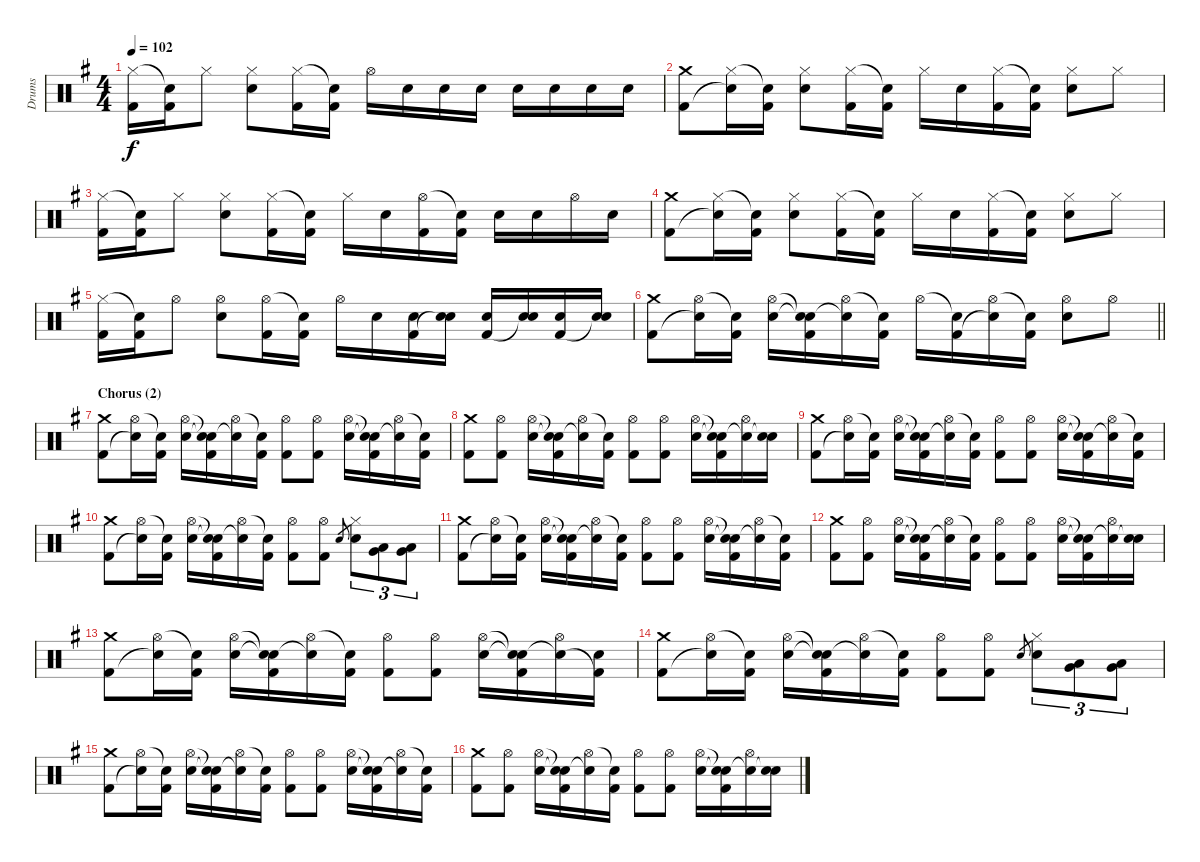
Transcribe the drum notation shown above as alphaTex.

\track ("Drums" "Drums") {instrument percussion}
\staff {score}
\articulation defaults
\ts (4 4)
\tempo 102
\clef neutral
\ks eminor
("Hi-Hat (closed)" "Kick (hit) 2").16{dy f} ("Snare (hit)"{t} "Kick (hit) 2").16 "Hi-Hat (closed)".8 ("Hi-Hat (closed)" "Electric Snare (hit)").8 ("Hi-Hat (closed)" "Kick (hit) 2").16 ("Snare (hit)"{t} "Kick (hit) 2").16 "Hi-Hat (open)".16 "Electric Snare (hit)".16 "Electric Snare (hit)".16 "Electric Snare (hit)".16 "Electric Snare (hit)".16 "Electric Snare (hit)".16 "Electric Snare (hit)".16 "Electric Snare (hit)".16 |
("Crash medium (hit)" "Kick (hit) 2").8 ("Hi-Hat (closed)" "Snare (hit)"{t}).16 ("Snare (hit)"{t} "Kick (hit) 2").16 ("Hi-Hat (closed)" "Electric Snare (hit)").8 ("Hi-Hat (closed)" "Kick (hit) 2").16 ("Snare (hit)"{t} "Kick (hit) 2").16 "Hi-Hat (closed)".16 "Electric Snare (hit)".16 ("Hi-Hat (closed)" "Kick (hit) 2").16 ("Snare (hit)"{t} "Kick (hit) 2").16 ("Hi-Hat (closed)" "Electric Snare (hit)").8 "Hi-Hat (closed)".8 |
("Hi-Hat (closed)" "Kick (hit) 2").16 ("Snare (hit)"{t} "Kick (hit) 2").16 "Hi-Hat (closed)".8 ("Hi-Hat (closed)" "Electric Snare (hit)").8 ("Hi-Hat (closed)" "Kick (hit) 2").16 ("Snare (hit)"{t} "Kick (hit) 2").16 "Hi-Hat (closed)".16 "Electric Snare (hit)".16 ("Hi-Hat (open)" "Kick (hit) 2").16 ("Snare (hit)"{t} "Kick (hit) 2").16 "Electric Snare (hit)".16 "Electric Snare (hit)".16 "Hi-Hat (open)".16 "Electric Snare (hit)".16 |
("Crash medium (hit)" "Kick (hit) 2").8 ("Hi-Hat (closed)" "Snare (hit)"{t}).16 ("Snare (hit)"{t} "Kick (hit) 2").16 ("Hi-Hat (closed)" "Electric Snare (hit)").8 ("Hi-Hat (closed)" "Kick (hit) 2").16 ("Snare (hit)"{t} "Kick (hit) 2").16 "Hi-Hat (closed)".16 "Electric Snare (hit)".16 ("Hi-Hat (closed)" "Kick (hit) 2").16 ("Snare (hit)"{t} "Kick (hit) 2").16 ("Hi-Hat (closed)" "Electric Snare (hit)").8 "Hi-Hat (closed)".8 |
("Hi-Hat (closed)" "Kick (hit) 2").16 ("Snare (hit)"{t} "Kick (hit) 2").16 "Hi-Hat (open)".8 ("Hi-Hat (open)" "Electric Snare (hit)").8 ("Hi-Hat (open)" "Kick (hit) 2").16 ("Snare (hit)"{t} "Kick (hit) 2").16 "Hi-Hat (open)".16 "Electric Snare (hit)".16 ("Electric Snare (hit)" "Kick (hit) 2").16 ("Electric Snare (hit)" "Snare (hit)"{t}).16 ("Electric Snare (hit)" "Kick (hit) 2").16 ("Electric Snare (hit)" "Snare (hit)"{t}).16 ("Electric Snare (hit)" "Kick (hit) 2").16 ("Electric Snare (hit)" "Snare (hit)"{t}).16 |
\barLineRight lightlight
("Crash medium (hit)" "Kick (hit) 2").8 ("Hi-Hat (open)" "Snare (hit)"{t}).16 ("Snare (hit)"{t} "Kick (hit) 2").16 ("Hi-Hat (open)" "Electric Snare (hit)").16 ("Snare (hit)"{t} "Snare (hit)"{t} "Kick (hit) 2").16 ("Hi-Hat (open)" "Snare (hit)"{t}).16 ("Snare (hit)"{t} "Kick (hit) 2").16 "Hi-Hat (open)".16 ("Snare (hit)"{t} "Kick (hit) 2").16 ("Hi-Hat (open)" "Snare (hit)"{t}).16 ("Snare (hit)"{t} "Kick (hit) 2").16 ("Hi-Hat (open)" "Electric Snare (hit)").8 "Hi-Hat (open)".8 |
\section ("" "Chorus (2)")
("Crash medium (hit)" "Kick (hit) 2").8 ("Hi-Hat (open)" "Snare (hit)"{t}).16 ("Snare (hit)"{t} "Kick (hit) 2").16 ("Hi-Hat (open)" "Electric Snare (hit)").16 ("Snare (hit)"{t} "Snare (hit)"{t} "Kick (hit) 2").16 ("Hi-Hat (open)" "Snare (hit)"{t}).16 ("Snare (hit)"{t} "Kick (hit) 2").16 ("Hi-Hat (open)" "Kick (hit) 2").8 ("Hi-Hat (open)" "Kick (hit) 2").8 ("Hi-Hat (open)" "Electric Snare (hit)").16 ("Snare (hit)"{t} "Snare (hit)"{t} "Kick (hit) 2").16 ("Hi-Hat (open)" "Snare (hit)"{t}).16 ("Snare (hit)"{t} "Kick (hit) 2").16 |
("Crash medium (hit)" "Kick (hit) 2").8 ("Hi-Hat (open)" "Kick (hit) 2").8 ("Hi-Hat (open)" "Electric Snare (hit)").16 ("Snare (hit)"{t} "Snare (hit)"{t} "Kick (hit) 2").16 ("Hi-Hat (open)" "Snare (hit)"{t}).16 ("Snare (hit)"{t} "Kick (hit) 2").16 ("Hi-Hat (open)" "Kick (hit) 2").8 ("Hi-Hat (open)" "Kick (hit) 2").8 ("Hi-Hat (open)" "Electric Snare (hit)").16 ("Snare (hit)"{t} "Snare (hit)"{t} "Kick (hit) 2").16 ("Hi-Hat (open)" "Snare (hit)"{t}).16 ("Electric Snare (hit)" "Snare (hit)"{t}).16 |
("Crash medium (hit)" "Kick (hit) 2").8 ("Hi-Hat (open)" "Snare (hit)"{t}).16 ("Snare (hit)"{t} "Kick (hit) 2").16 ("Hi-Hat (open)" "Electric Snare (hit)").16 ("Snare (hit)"{t} "Snare (hit)"{t} "Kick (hit) 2").16 ("Hi-Hat (open)" "Snare (hit)"{t}).16 ("Snare (hit)"{t} "Kick (hit) 2").16 ("Hi-Hat (open)" "Kick (hit) 2").8 ("Hi-Hat (open)" "Kick (hit) 2").8 ("Hi-Hat (open)" "Electric Snare (hit)").16 ("Snare (hit)"{t} "Snare (hit)"{t} "Kick (hit) 2").16 ("Hi-Hat (open)" "Snare (hit)"{t}).16 ("Snare (hit)"{t} "Kick (hit) 2").16 |
("Crash medium (hit)" "Kick (hit) 2").8 ("Hi-Hat (open)" "Snare (hit)"{t}).16 ("Snare (hit)"{t} "Kick (hit) 2").16 ("Hi-Hat (open)" "Electric Snare (hit)").16 ("Snare (hit)"{t} "Snare (hit)"{t} "Kick (hit) 2").16 ("Hi-Hat (open)" "Snare (hit)"{t}).16 ("Snare (hit)"{t} "Kick (hit) 2").16 ("Hi-Hat (open)" "Kick (hit) 2").8 ("Hi-Hat (open)" "Kick (hit) 2").8 "Electric Snare (hit)".8{gr} ("Hi-Hat (closed)" "Electric Snare (hit)").8{tu (3 2)} ("Low Tom (hit)" "Very Low Tom (hit)").8{tu (3 2)} ("Low Tom (hit)" "Very Low Tom (hit)").8{tu (3 2)} |
("Crash medium (hit)" "Kick (hit) 2").8 ("Hi-Hat (open)" "Snare (hit)"{t}).16 ("Snare (hit)"{t} "Kick (hit) 2").16 ("Hi-Hat (open)" "Electric Snare (hit)").16 ("Snare (hit)"{t} "Snare (hit)"{t} "Kick (hit) 2").16 ("Hi-Hat (open)" "Snare (hit)"{t}).16 ("Snare (hit)"{t} "Kick (hit) 2").16 ("Hi-Hat (open)" "Kick (hit) 2").8 ("Hi-Hat (open)" "Kick (hit) 2").8 ("Hi-Hat (open)" "Electric Snare (hit)").16 ("Snare (hit)"{t} "Snare (hit)"{t} "Kick (hit) 2").16 ("Hi-Hat (open)" "Snare (hit)"{t}).16 ("Snare (hit)"{t} "Kick (hit) 2").16 |
("Crash medium (hit)" "Kick (hit) 2").8 ("Hi-Hat (open)" "Kick (hit) 2").8 ("Hi-Hat (open)" "Electric Snare (hit)").16 ("Snare (hit)"{t} "Snare (hit)"{t} "Kick (hit) 2").16 ("Hi-Hat (open)" "Snare (hit)"{t}).16 ("Snare (hit)"{t} "Kick (hit) 2").16 ("Hi-Hat (open)" "Kick (hit) 2").8 ("Hi-Hat (open)" "Kick (hit) 2").8 ("Hi-Hat (open)" "Electric Snare (hit)").16 ("Snare (hit)"{t} "Snare (hit)"{t} "Kick (hit) 2").16 ("Hi-Hat (open)" "Snare (hit)"{t}).16 ("Electric Snare (hit)" "Snare (hit)"{t}).16 |
("Crash medium (hit)" "Kick (hit) 2").8 ("Hi-Hat (open)" "Snare (hit)"{t}).16 ("Snare (hit)"{t} "Kick (hit) 2").16 ("Hi-Hat (open)" "Electric Snare (hit)").16 ("Snare (hit)"{t} "Snare (hit)"{t} "Kick (hit) 2").16 ("Hi-Hat (open)" "Snare (hit)"{t}).16 ("Snare (hit)"{t} "Kick (hit) 2").16 ("Hi-Hat (open)" "Kick (hit) 2").8 ("Hi-Hat (open)" "Kick (hit) 2").8 ("Hi-Hat (open)" "Electric Snare (hit)").16 ("Snare (hit)"{t} "Snare (hit)"{t} "Kick (hit) 2").16 ("Hi-Hat (open)" "Snare (hit)"{t}).16 ("Electric Snare (hit)" "Kick (hit) 2"{t}).16 |
("Crash medium (hit)" "Kick (hit) 2").8 ("Hi-Hat (open)" "Snare (hit)"{t}).16 ("Snare (hit)"{t} "Kick (hit) 2").16 ("Hi-Hat (open)" "Electric Snare (hit)").16 ("Snare (hit)"{t} "Snare (hit)"{t} "Kick (hit) 2").16 ("Hi-Hat (open)" "Snare (hit)"{t}).16 ("Snare (hit)"{t} "Kick (hit) 2").16 ("Hi-Hat (open)" "Kick (hit) 2").8 ("Hi-Hat (open)" "Kick (hit) 2").8 "Electric Snare (hit)".8{gr} ("Hi-Hat (closed)" "Electric Snare (hit)").8{tu (3 2)} ("Low Tom (hit)" "Very Low Tom (hit)").8{tu (3 2)} ("Low Tom (hit)" "Very Low Tom (hit)").8{tu (3 2)} |
("Crash medium (hit)" "Kick (hit) 2").8 ("Hi-Hat (open)" "Snare (hit)"{t}).16 ("Snare (hit)"{t} "Kick (hit) 2").16 ("Hi-Hat (open)" "Electric Snare (hit)").16 ("Snare (hit)"{t} "Snare (hit)"{t} "Kick (hit) 2").16 ("Hi-Hat (open)" "Snare (hit)"{t}).16 ("Snare (hit)"{t} "Kick (hit) 2").16 ("Hi-Hat (open)" "Kick (hit) 2").8 ("Hi-Hat (open)" "Kick (hit) 2").8 ("Hi-Hat (open)" "Electric Snare (hit)").16 ("Snare (hit)"{t} "Snare (hit)"{t} "Kick (hit) 2").16 ("Hi-Hat (open)" "Snare (hit)"{t}).16 ("Snare (hit)"{t} "Kick (hit) 2").16 |
("Crash medium (hit)" "Kick (hit) 2").8 ("Hi-Hat (open)" "Kick (hit) 2").8 ("Hi-Hat (open)" "Electric Snare (hit)").16 ("Snare (hit)"{t} "Snare (hit)"{t} "Kick (hit) 2").16 ("Hi-Hat (open)" "Snare (hit)"{t}).16 ("Snare (hit)"{t} "Kick (hit) 2").16 ("Hi-Hat (open)" "Kick (hit) 2").8 ("Hi-Hat (open)" "Kick (hit) 2").8 ("Hi-Hat (open)" "Electric Snare (hit)").16 ("Snare (hit)"{t} "Snare (hit)"{t} "Kick (hit) 2").16 ("Hi-Hat (open)" "Snare (hit)"{t}).16 ("Electric Snare (hit)" "Snare (hit)"{t}).16
